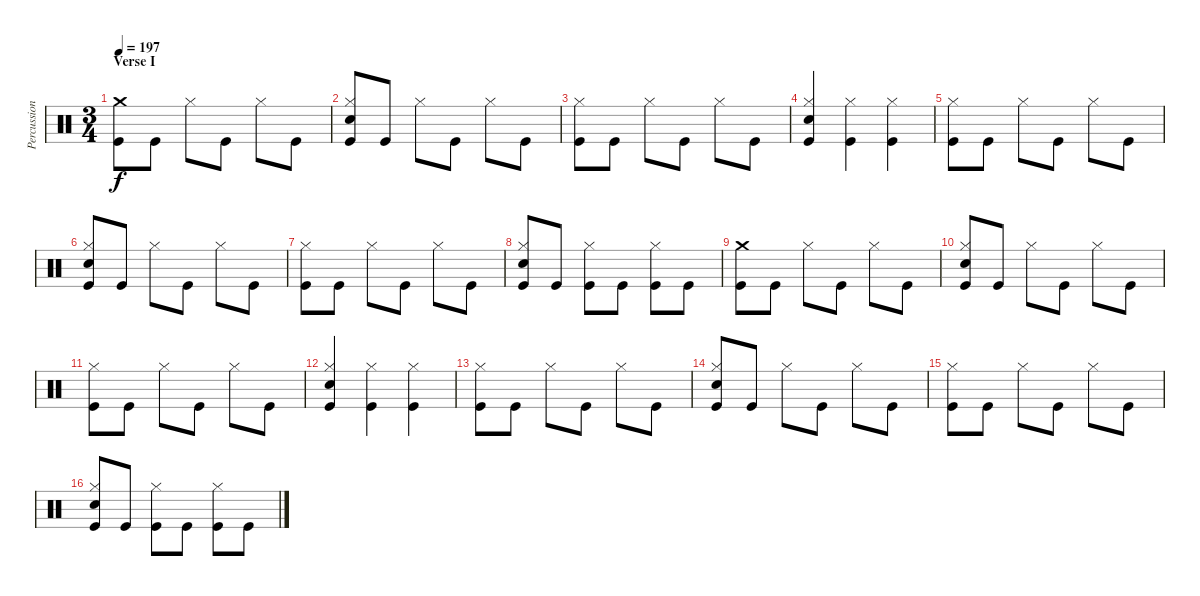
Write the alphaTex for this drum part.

\track ("Percussion" "Percussion") {instrument percussion}
\staff {score}
\articulation defaults
\ts (3 4)
\section ("" "Verse I")
\tempo 197
\clef neutral
\ks c
("Crash medium (hit)" "Kick (hit)").8{dy f} "Kick (hit)".8 "Hi-Hat (closed)".8 "Kick (hit)".8 "Hi-Hat (closed)".8 "Kick (hit)".8 |
("Hi-Hat (closed)" "Electric Snare (hit)" "Kick (hit)").8 "Kick (hit)".8 "Hi-Hat (closed)".8 "Kick (hit)".8 "Hi-Hat (closed)".8 "Kick (hit)".8 |
("Hi-Hat (closed)" "Kick (hit)").8 "Kick (hit)".8 "Hi-Hat (closed)".8 "Kick (hit)".8 "Hi-Hat (closed)".8 "Kick (hit)".8 |
("Hi-Hat (closed)" "Electric Snare (hit)" "Kick (hit)").4 ("Hi-Hat (closed)" "Kick (hit)").4 ("Hi-Hat (closed)" "Kick (hit)").4 |
("Hi-Hat (closed)" "Kick (hit)").8 "Kick (hit)".8 "Hi-Hat (closed)".8 "Kick (hit)".8 "Hi-Hat (closed)".8 "Kick (hit)".8 |
("Hi-Hat (closed)" "Electric Snare (hit)" "Kick (hit)").8 "Kick (hit)".8 "Hi-Hat (closed)".8 "Kick (hit)".8 "Hi-Hat (closed)".8 "Kick (hit)".8 |
("Hi-Hat (closed)" "Kick (hit)").8 "Kick (hit)".8 "Hi-Hat (closed)".8 "Kick (hit)".8 "Hi-Hat (closed)".8 "Kick (hit)".8 |
("Hi-Hat (closed)" "Electric Snare (hit)" "Kick (hit)").8 "Kick (hit)".8 ("Hi-Hat (closed)" "Kick (hit)").8 "Kick (hit)".8 ("Hi-Hat (closed)" "Kick (hit)").8 "Kick (hit)".8 |
("Crash medium (hit)" "Kick (hit)").8 "Kick (hit)".8 "Hi-Hat (closed)".8 "Kick (hit)".8 "Hi-Hat (closed)".8 "Kick (hit)".8 |
("Hi-Hat (closed)" "Electric Snare (hit)" "Kick (hit)").8 "Kick (hit)".8 "Hi-Hat (closed)".8 "Kick (hit)".8 "Hi-Hat (closed)".8 "Kick (hit)".8 |
("Hi-Hat (closed)" "Kick (hit)").8 "Kick (hit)".8 "Hi-Hat (closed)".8 "Kick (hit)".8 "Hi-Hat (closed)".8 "Kick (hit)".8 |
("Hi-Hat (closed)" "Electric Snare (hit)" "Kick (hit)").4 ("Hi-Hat (closed)" "Kick (hit)").4 ("Hi-Hat (closed)" "Kick (hit)").4 |
("Hi-Hat (closed)" "Kick (hit)").8 "Kick (hit)".8 "Hi-Hat (closed)".8 "Kick (hit)".8 "Hi-Hat (closed)".8 "Kick (hit)".8 |
("Hi-Hat (closed)" "Electric Snare (hit)" "Kick (hit)").8 "Kick (hit)".8 "Hi-Hat (closed)".8 "Kick (hit)".8 "Hi-Hat (closed)".8 "Kick (hit)".8 |
("Hi-Hat (closed)" "Kick (hit)").8 "Kick (hit)".8 "Hi-Hat (closed)".8 "Kick (hit)".8 "Hi-Hat (closed)".8 "Kick (hit)".8 |
("Hi-Hat (closed)" "Electric Snare (hit)" "Kick (hit)").8 "Kick (hit)".8 ("Hi-Hat (closed)" "Kick (hit)").8 "Kick (hit)".8 ("Hi-Hat (closed)" "Kick (hit)").8 "Kick (hit)".8
